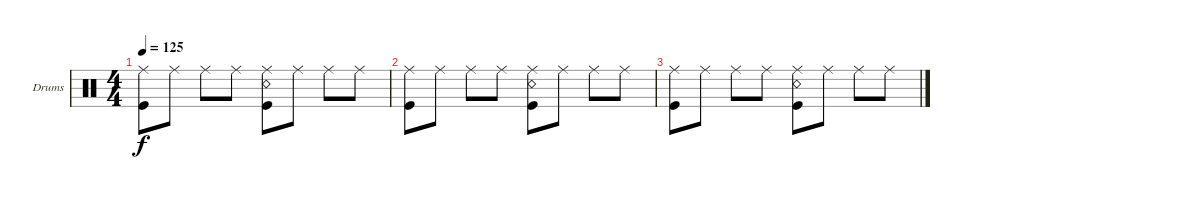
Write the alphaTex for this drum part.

\defaultSystemsLayout 4
\bracketExtendMode groupsimilarinstruments
\firstSystemTrackNameOrientation horizontal
\otherSystemsTrackNameOrientation horizontal
\track ("Drumkit" "Drums") {instrument percussion}
\staff {score}
\articulation defaults
\ts (4 4)
\tempo 125
\clef neutral
\ks c
("Kick (hit)" "Ride (middle)").8{dy f} "Ride (middle)".8 "Ride (middle)".8 "Ride (middle)".8 ("Ride (middle)" "Snare (rim shot)" "Kick (hit)").8 "Ride (middle)".8 "Ride (middle)".8 "Ride (middle)".8 |
("Kick (hit)" "Ride (middle)").8 "Ride (middle)".8 "Ride (middle)".8 "Ride (middle)".8 ("Ride (middle)" "Snare (rim shot)" "Kick (hit)").8 "Ride (middle)".8 "Ride (middle)".8 "Ride (middle)".8 |
("Kick (hit)" "Ride (middle)").8 "Ride (middle)".8 "Ride (middle)".8 "Ride (middle)".8 ("Ride (middle)" "Snare (rim shot)" "Kick (hit)").8 "Ride (middle)".8 "Ride (middle)".8 "Ride (middle)".8
